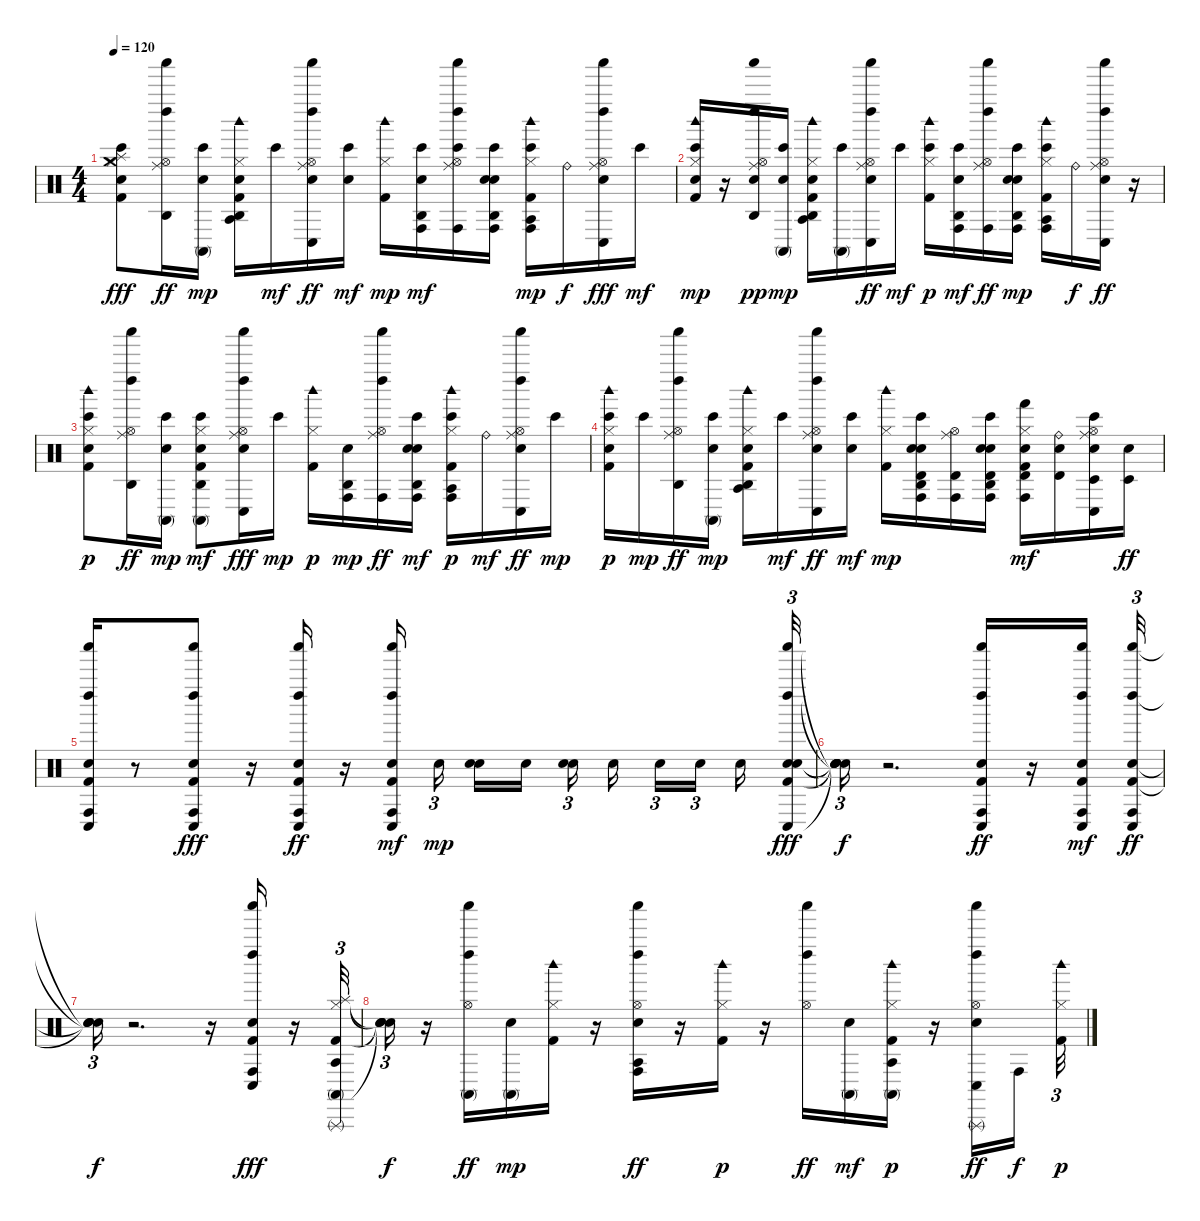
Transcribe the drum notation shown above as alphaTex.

\track "" {instrument percussion}
\staff {score}
\articulation defaults
\ts (4 4)
\tempo 120
\clef neutral
\ks c
("Kick (hit) 2" "Hi-Hat (closed)" "Hand Clap (hit)" "Bongo High (hit)" "Crash medium (hit)" "Splash (hit)").8{dy fff} ("Shaker (hit)" "Left Maraca (hit)" "Hi-Hat (open)" "Agogo high (hit)" "Ride (middle)").16{dy ff} ("Electric Snare (hit)" "Conga high (mute)" "Bongo High (hit)").16{dy mp} ("Kick (hit) 2" "Hi-Hat (closed)" "Agogo high (hit)" "Hand Clap (hit)" "Agogo tow (hit)" "Woodblock high (hit)").16 "Bongo High (hit)".16{dy mf} ("Shaker (hit)" "Left Maraca (hit)" "Electric Snare (hit)" "Conga low (hit)" "Hi-Hat (open)" "Ride (middle)").16{dy ff} ("Hand Clap (hit)" "Bongo High (hit)").16{dy mf} ("Kick (hit) 2" "Hi-Hat (closed)" "Woodblock high (hit)").16{dy mp} ("Conga high (hit)" "Agogo high (hit)" "Hand Clap (hit)" "Bongo High (hit)").16{dy mf} ("Shaker (hit)" "Left Maraca (hit)" "Conga high (hit)" "Hi-Hat (open)" "Ride (middle)" "Bongo High (hit)").16 ("Electric Snare (hit)" "Conga high (hit)" "Agogo high (hit)" "Hand Clap (hit)" "Bongo High (hit)").16 ("Kick (hit) 2" "Conga high (hit)" "Hi-Hat (closed)" "Bongo High (hit)" "Agogo tow (hit)" "Woodblock high (hit)").16{dy mp} "Ride (bell)".16{dy f} ("Shaker (hit)" "Left Maraca (hit)" "Electric Snare (hit)" "Conga low (hit)" "Hi-Hat (open)" "Ride (middle)").16{dy fff} "Bongo High (hit)".16{dy mf} |
("Kick (hit) 2" "Hi-Hat (closed)" "Hand Clap (hit)" "Bongo High (hit)" "Woodblock high (hit)").16{dy mp} r.16 ("Shaker (hit)" "Left Maraca (hit)" "Hi-Hat (open)" "Agogo high (hit)" "Ride (middle)" "Hand Clap (hit)").16{dy pp} ("Electric Snare (hit)" "Conga high (mute)" "Bongo High (hit)").16{dy mp} ("Kick (hit) 2" "Hi-Hat (closed)" "Agogo high (hit)" "Hand Clap (hit)" "Agogo tow (hit)" "Woodblock high (hit)").16 ("Conga high (mute)" "Bongo High (hit)").16 ("Shaker (hit)" "Left Maraca (hit)" "Electric Snare (hit)" "Conga low (hit)" "Hi-Hat (open)" "Ride (middle)").16{dy ff} "Bongo High (hit)".16{dy mf} ("Kick (hit) 2" "Hi-Hat (closed)" "Bongo High (hit)" "Woodblock high (hit)").16{dy p} ("Conga high (hit)" "Agogo high (hit)" "Hand Clap (hit)" "Bongo High (hit)").16{dy mf} ("Shaker (hit)" "Left Maraca (hit)" "Conga high (hit)" "Hi-Hat (open)" "Ride (middle)").16{dy ff} ("Electric Snare (hit)" "Conga high (hit)" "Agogo high (hit)" "Hand Clap (hit)" "Bongo High (hit)").16{dy mp} ("Kick (hit) 2" "Conga high (hit)" "Hi-Hat (closed)" "Bongo High (hit)" "Agogo tow (hit)" "Woodblock high (hit)").16 "Ride (bell)".16{dy f} ("Shaker (hit)" "Left Maraca (hit)" "Electric Snare (hit)" "Conga low (hit)" "Hi-Hat (open)" "Ride (middle)").16{dy ff} r.16 |
("Kick (hit) 2" "Hi-Hat (closed)" "Hand Clap (hit)" "Bongo High (hit)" "Woodblock high (hit)").8{dy p} ("Shaker (hit)" "Left Maraca (hit)" "Hi-Hat (open)" "Agogo high (hit)" "Ride (middle)").16{dy ff} ("Electric Snare (hit)" "Conga high (mute)" "Bongo High (hit)").16{dy mp} ("Kick (hit) 2" "Conga high (mute)" "Hi-Hat (closed)" "Agogo high (hit)" "Hand Clap (hit)" "Bongo High (hit)").8{dy mf} ("Shaker (hit)" "Left Maraca (hit)" "Electric Snare (hit)" "Conga low (hit)" "Hi-Hat (open)" "Ride (middle)").16{dy fff} "Bongo High (hit)".16{dy mp} ("Kick (hit) 2" "Hi-Hat (closed)" "Woodblock high (hit)").16{dy p} ("Conga high (hit)" "Agogo high (hit)" "Hand Clap (hit)").16{dy mp} ("Shaker (hit)" "Left Maraca (hit)" "Conga high (hit)" "Hi-Hat (open)" "Ride (middle)").16{dy ff} ("Electric Snare (hit)" "Conga high (hit)" "Agogo high (hit)" "Hand Clap (hit)" "Bongo High (hit)").16{dy mf} ("Kick (hit) 2" "Conga high (hit)" "Hi-Hat (closed)" "Bongo High (hit)" "Agogo tow (hit)" "Woodblock high (hit)").16{dy p} "Ride (bell)".16{dy mf} ("Shaker (hit)" "Left Maraca (hit)" "Electric Snare (hit)" "Conga low (hit)" "Hi-Hat (open)" "Ride (middle)").16{dy ff} "Bongo High (hit)".16{dy mp} |
("Kick (hit) 2" "Hi-Hat (closed)" "Hand Clap (hit)" "Bongo High (hit)" "Woodblock high (hit)").16{dy p} "Bongo High (hit)".16{dy mp} ("Left Maraca (hit)" "Shaker (hit)" "Hi-Hat (open)" "Agogo high (hit)" "Ride (middle)").16{dy ff} ("Electric Snare (hit)" "Conga high (mute)" "Bongo High (hit)").16{dy mp} ("Kick (hit) 2" "Hi-Hat (closed)" "Agogo high (hit)" "Hand Clap (hit)" "Agogo tow (hit)" "Woodblock high (hit)").16 "Bongo High (hit)".16{dy mf} ("Shaker (hit)" "Left Maraca (hit)" "Electric Snare (hit)" "Conga low (hit)" "Hi-Hat (open)" "Ride (middle)").16{dy ff} ("Hand Clap (hit)" "Bongo High (hit)").16{dy mf} ("Kick (hit) 2" "Hi-Hat (closed)" "Woodblock high (hit)").16{dy mp} ("Electric Snare (hit)" "Conga high (hit)" "Agogo high (hit)" "Hand Clap (hit)" "Bongo High (hit)" "Timbale high (hit)").16 ("Conga high (hit)" "Hi-Hat (open)" "Ride (middle)" "Timbale high (hit)").16 ("Electric Snare (hit)" "Conga high (hit)" "Agogo high (hit)" "Hand Clap (hit)" "Bongo High (hit)" "Timbale high (hit)").16 ("Kick (hit) 2" "Electric Snare (hit)" "Conga high (hit)" "Hi-Hat (closed)" "Hand (hit)" "Timbale high (hit)").16{dy mf} ("Electric Snare (hit)" "Ride (bell)" "Timbale high (hit)").16 ("Electric Snare (hit)" "Conga low (hit)" "Hi-Hat (open)" "Ride (middle)" "Bongo High (hit)" "Timbale low (hit)").16 ("Electric Snare (hit)" "Timbale low (hit)").16{dy ff} |
("Kick (hit) 2" "Shaker (hit)" "Left Maraca (hit)" "Electric Snare (hit)" "Conga low (hit)" "Conga high (hit)").16 r.8 ("Kick (hit) 2" "Shaker (hit)" "Left Maraca (hit)" "Electric Snare (hit)" "Conga low (hit)" "Conga high (hit)").8{dy fff} r.16 ("Kick (hit) 2" "Shaker (hit)" "Left Maraca (hit)" "Electric Snare (hit)" "Conga low (hit)" "Conga high (hit)").16{dy ff} r.16 ("Kick (hit) 2" "Shaker (hit)" "Left Maraca (hit)" "Electric Snare (hit)" "Conga high (hit)" "Conga low (hit)").16{dy mf beam splitsecondary} "Snare (hit) 2".16{tu (3 2) dy mp beam splitsecondary} ("Snare (hit) 2" "Snare (hit) 2").16 "Snare (hit) 2".16{beam splitsecondary} ("Snare (hit) 2" "Snare (hit) 2").16{tu (3 2)} "Snare (hit) 2".16{beam splitsecondary} "Snare (hit) 2".16{tu (3 2)} "Snare (hit) 2".16{tu (3 2) beam splitsecondary} "Snare (hit) 2".16 ("Snare (hit) 2" "Kick (hit) 2" "Shaker (hit)" "Left Maraca (hit)" "Electric Snare (hit)" "Conga low (hit)").32{tu (3 2) dy fff} |
("Snare (hit)"{t} "Snare (hit)"{t} "Snare (hit)"{t} "Snare (hit)"{t} "Snare (hit)"{t} "Snare (hit)"{t}).16{tu (3 2) dy f} r.2{d} ("Kick (hit) 2" "Shaker (hit)" "Left Maraca (hit)" "Electric Snare (hit)" "Conga low (hit)" "Conga high (hit)").16{dy ff} r.16 ("Kick (hit) 2" "Shaker (hit)" "Left Maraca (hit)" "Electric Snare (hit)" "Conga low (hit)" "Conga high (hit)").16{dy mf} ("Kick (hit) 2" "Shaker (hit)" "Left Maraca (hit)" "Electric Snare (hit)" "Conga low (hit)" "Conga high (hit)").32{tu (3 2) dy ff} |
("Snare (hit)"{t} "Snare (hit)"{t} "Snare (hit)"{t} "Snare (hit)"{t}).16{tu (3 2) dy f} r.2{d} r.16 ("Kick (hit) 2" "Shaker (hit)" "Left Maraca (hit)" "Electric Snare (hit)" "Conga low (hit)" "Conga high (hit)").16{dy fff} r.16 ("Kick (hit) 2" "Conga high (mute)" "Hi-Hat (closed)" "Splash (hit)" "Triangle (rnute)" "Agogo tow (hit)").32{tu (3 2)} |
("Snare (hit)"{t} "Snare (hit)"{t} "Snare (hit)"{t} "Snare (hit)"{t}).16{tu (3 2) dy f} r.16 ("Shaker (hit)" "Left Maraca (hit)" "Conga high (mute)" "Hi-Hat (open)").16{dy ff} ("Electric Snare (hit)" "Conga high (mute)").16{dy mp} ("Kick (hit) 2" "Hi-Hat (closed)" "Woodblock high (hit)").16 r.16 ("Shaker (hit)" "Left Maraca (hit)" "Electric Snare (hit)" "Conga high (hit)" "Hi-Hat (open)" "Agogo tow (hit)").16{dy ff} r.16 ("Kick (hit) 2" "Hi-Hat (closed)" "Woodblock high (hit)").16{dy p} r.16 ("Shaker (hit)" "Left Maraca (hit)" "Hi-Hat (open)").16{dy ff} ("Electric Snare (hit)" "Conga high (mute)").16{dy mf} ("Kick (hit) 2" "Conga high (mute)" "Hi-Hat (closed)" "Agogo tow (hit)" "Woodblock high (hit)").16{dy p} r.16 ("Shaker (hit)" "Left Maraca (hit)" "Electric Snare (hit)" "Conga low (hit)" "Hi-Hat (open)" "Triangle (rnute)").16{dy ff} "Conga high (hit)".16{dy f beam splitsecondary} ("Kick (hit) 2" "Hi-Hat (closed)" "Woodblock high (hit)").32{tu (3 2) dy p}
